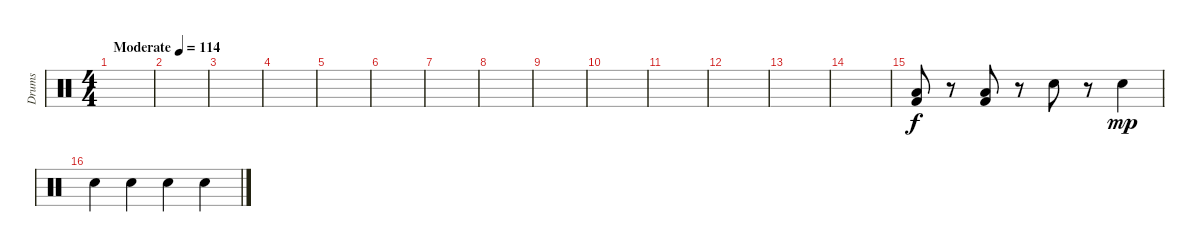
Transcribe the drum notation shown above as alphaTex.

\track ("Drums" "Drums") {instrument percussion}
\staff {score}
\articulation defaults
\ts (4 4)
\tempo (114 "Moderate")
\clef neutral
\ks c
|
|
|
|
|
|
|
|
|
|
|
|
|
|
("Kick (hit) 2" "Low Floor Tom (hit)").8{volume 16} r.8 ("Kick (hit) 2" "Low Floor Tom (hit)").8 r.8 "Snare (hit) 2".8{volume 1} r.8 "Snare (hit) 2".4{dy mp} |
"Snare (hit) 2".4 "Snare (hit) 2".4 "Snare (hit) 2".4 "Snare (hit) 2".4
